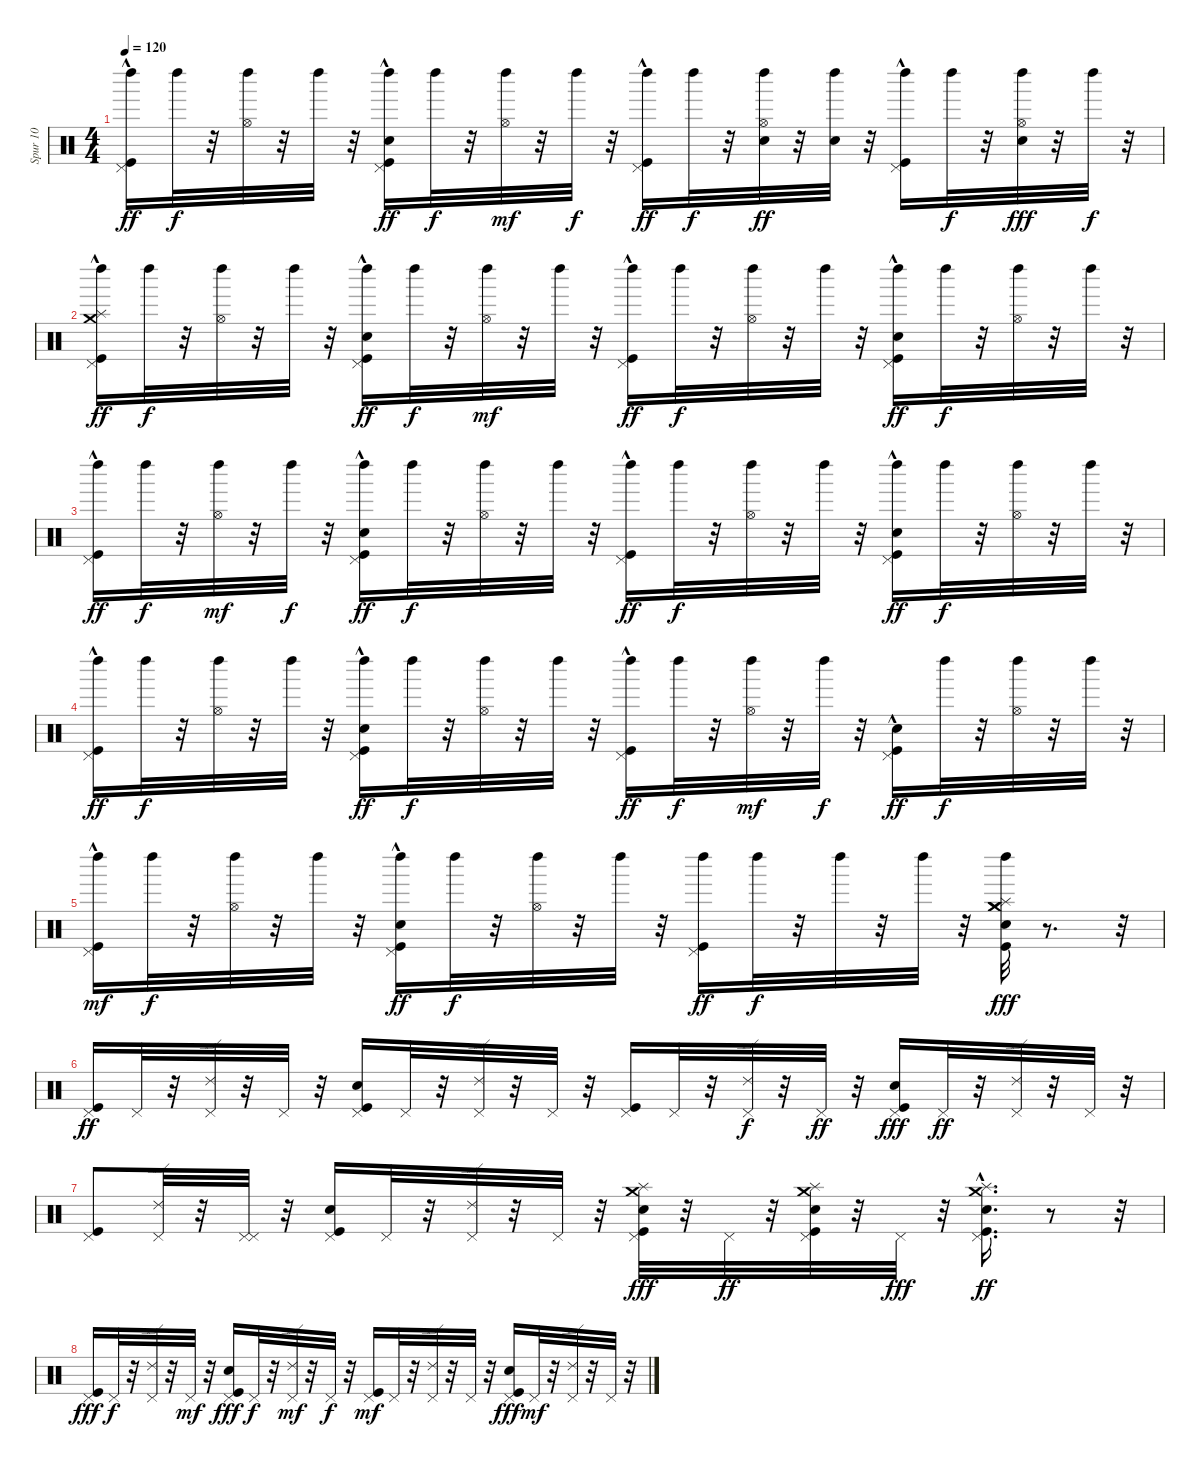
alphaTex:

\track ("Spur 10" "Spur 10") {instrument percussion}
\staff {score}
\articulation defaults
\ts (4 4)
\tempo 120
\clef neutral
\ks c
("Kick (hit)" "Pedal Hi-Hat (hit)"{hac} "Left Maraca (hit)").16{dy ff} "Left Maraca (hit)".32{dy f} r.32 ("Hi-Hat (open)" "Left Maraca (hit)").32 r.32 "Left Maraca (hit)".32 r.32 ("Snare (hit) 2"{hac} "Kick (hit)" "Pedal Hi-Hat (hit)"{hac} "Left Maraca (hit)").16{dy ff} "Left Maraca (hit)".32{dy f} r.32 ("Hi-Hat (open)" "Left Maraca (hit)").32{dy mf} r.32 "Left Maraca (hit)".32{dy f} r.32 ("Kick (hit)"{hac} "Pedal Hi-Hat (hit)"{hac} "Left Maraca (hit)").16{dy ff} "Left Maraca (hit)".32{dy f} r.32 ("Snare (hit) 2" "Hi-Hat (open)" "Left Maraca (hit)").32{dy ff} r.32 ("Snare (hit) 2" "Left Maraca (hit)").32 r.32 ("Kick (hit)"{hac} "Pedal Hi-Hat (hit)"{hac} "Left Maraca (hit)").16 "Left Maraca (hit)".32{dy f} r.32 ("Snare (hit) 2" "Hi-Hat (open)" "Left Maraca (hit)").32{dy fff} r.32 "Left Maraca (hit)".32{dy f} r.32 |
("Kick (hit)" "Pedal Hi-Hat (hit)"{hac} "Left Maraca (hit)" "Crash medium (hit)" "Splash (hit)").16{dy ff} "Left Maraca (hit)".32{dy f} r.32 ("Hi-Hat (open)" "Left Maraca (hit)").32 r.32 "Left Maraca (hit)".32 r.32 ("Kick (hit)"{hac} "Snare (hit) 2" "Pedal Hi-Hat (hit)"{hac} "Left Maraca (hit)").16{dy ff} "Left Maraca (hit)".32{dy f} r.32 ("Hi-Hat (open)" "Left Maraca (hit)").32{dy mf} r.32 "Left Maraca (hit)".32 r.32 ("Kick (hit)"{hac} "Pedal Hi-Hat (hit)" "Left Maraca (hit)").16{dy ff} "Left Maraca (hit)".32{dy f} r.32 ("Hi-Hat (open)" "Left Maraca (hit)").32 r.32 "Left Maraca (hit)".32 r.32 ("Kick (hit)"{hac} "Snare (hit) 2"{hac} "Pedal Hi-Hat (hit)"{hac} "Left Maraca (hit)").16{dy ff} "Left Maraca (hit)".32{dy f} r.32 ("Hi-Hat (open)" "Left Maraca (hit)").32 r.32 "Left Maraca (hit)".32 r.32 |
("Kick (hit)"{hac} "Pedal Hi-Hat (hit)" "Left Maraca (hit)").16{dy ff} "Left Maraca (hit)".32{dy f} r.32 ("Hi-Hat (open)" "Left Maraca (hit)").32{dy mf} r.32 "Left Maraca (hit)".32{dy f} r.32 ("Kick (hit)"{hac} "Snare (hit) 2" "Pedal Hi-Hat (hit)" "Left Maraca (hit)").16{dy ff} "Left Maraca (hit)".32{dy f} r.32 ("Hi-Hat (open)" "Left Maraca (hit)").32 r.32 "Left Maraca (hit)".32 r.32 ("Kick (hit)"{hac} "Pedal Hi-Hat (hit)" "Left Maraca (hit)").16{dy ff} "Left Maraca (hit)".32{dy f} r.32 ("Hi-Hat (open)" "Left Maraca (hit)").32 r.32 "Left Maraca (hit)".32 r.32 ("Kick (hit)"{hac} "Snare (hit) 2" "Pedal Hi-Hat (hit)" "Left Maraca (hit)").16{dy ff} "Left Maraca (hit)".32{dy f} r.32 ("Hi-Hat (open)" "Left Maraca (hit)").32 r.32 "Left Maraca (hit)".32 r.32 |
("Kick (hit)" "Pedal Hi-Hat (hit)"{hac} "Left Maraca (hit)").16{dy ff} "Left Maraca (hit)".32{dy f} r.32 ("Hi-Hat (open)" "Left Maraca (hit)").32 r.32 "Left Maraca (hit)".32 r.32 ("Snare (hit) 2" "Kick (hit)"{hac} "Pedal Hi-Hat (hit)"{hac} "Left Maraca (hit)").16{dy ff} "Left Maraca (hit)".32{dy f} r.32 ("Hi-Hat (open)" "Left Maraca (hit)").32 r.32 "Left Maraca (hit)".32 r.32 ("Kick (hit)"{hac} "Pedal Hi-Hat (hit)"{hac} "Left Maraca (hit)").16{dy ff} "Left Maraca (hit)".32{dy f} r.32 ("Hi-Hat (open)" "Left Maraca (hit)").32{dy mf} r.32 "Left Maraca (hit)".32{dy f} r.32 ("Kick (hit)"{hac} "Snare (hit) 2" "Pedal Hi-Hat (hit)"{hac}).16{dy ff} "Left Maraca (hit)".32{dy f} r.32 ("Hi-Hat (open)" "Left Maraca (hit)").32 r.32 "Left Maraca (hit)".32 r.32 |
("Kick (hit)"{hac} "Pedal Hi-Hat (hit)"{hac} "Left Maraca (hit)").16{dy mf} "Left Maraca (hit)".32{dy f} r.32 ("Hi-Hat (open)" "Left Maraca (hit)").32 r.32 "Left Maraca (hit)".32 r.32 ("Snare (hit) 2"{hac} "Kick (hit)" "Pedal Hi-Hat (hit)" "Left Maraca (hit)").16{dy ff} "Left Maraca (hit)".32{dy f} r.32 ("Hi-Hat (open)" "Left Maraca (hit)").32 r.32 "Left Maraca (hit)".32 r.32 ("Kick (hit)" "Pedal Hi-Hat (hit)" "Left Maraca (hit)").16{dy ff} "Left Maraca (hit)".32{dy f} r.32 "Left Maraca (hit)".32 r.32 "Left Maraca (hit)".32 r.32 ("Kick (hit)" "Snare (hit) 2" "Crash medium (hit)" "Splash (hit)" "Left Maraca (hit)" "Crash medium (hit)").32{dy fff} r.8{d} r.32 |
("Kick (hit)" "Pedal Hi-Hat (hit)").16{dy ff} "Pedal Hi-Hat (hit)".32 r.32 ("Ride (edge) 2" "Pedal Hi-Hat (hit)").32 r.32 "Pedal Hi-Hat (hit)".32 r.32 ("Snare (hit) 2" "Kick (hit)" "Pedal Hi-Hat (hit)").16 "Pedal Hi-Hat (hit)".32 r.32 ("Ride (edge) 2" "Pedal Hi-Hat (hit)").32 r.32 "Pedal Hi-Hat (hit)".32 r.32 ("Kick (hit)" "Pedal Hi-Hat (hit)").16 "Pedal Hi-Hat (hit)".32 r.32 ("Ride (edge) 2" "Pedal Hi-Hat (hit)").32{dy f} r.32 "Pedal Hi-Hat (hit)".32{dy ff} r.32 ("Kick (hit)" "Snare (hit) 2" "Pedal Hi-Hat (hit)").16{dy fff} "Pedal Hi-Hat (hit)".32{dy ff} r.32 ("Ride (edge) 2" "Pedal Hi-Hat (hit)").32 r.32 "Pedal Hi-Hat (hit)".32 r.32 |
("Kick (hit)" "Pedal Hi-Hat (hit)").8 ("Ride (edge) 2" "Pedal Hi-Hat (hit)").32 r.32 ("Pedal Hi-Hat (hit)" "Pedal Hi-Hat (hit)").32 r.32 ("Snare (hit) 2" "Kick (hit)" "Pedal Hi-Hat (hit)").16 "Pedal Hi-Hat (hit)".32 r.32 ("Ride (edge) 2" "Pedal Hi-Hat (hit)").32 r.32 "Pedal Hi-Hat (hit)".32 r.32 ("Kick (hit)" "Snare (hit) 2" "Crash medium (hit)" "Pedal Hi-Hat (hit)" "Splash (hit)").32{dy fff} r.32 "Pedal Hi-Hat (hit)".32{dy ff} r.32 ("Kick (hit)" "Snare (hit) 2" "Crash medium (hit)" "Pedal Hi-Hat (hit)" "Splash (hit)").32 r.32 "Pedal Hi-Hat (hit)".32{dy fff} r.32 ("Snare (hit) 2"{hac} "Kick (hit)"{hac} "Crash medium (hit)" "Pedal Hi-Hat (hit)" "Splash (hit)").16{d dy ff} r.8 r.32 |
("Kick (hit)" "Pedal Hi-Hat (hit)").16{dy fff} "Pedal Hi-Hat (hit)".32{dy f} r.32 ("Ride (edge) 2" "Pedal Hi-Hat (hit)").32 r.32 "Pedal Hi-Hat (hit)".32{dy mf} r.32 ("Snare (hit) 2" "Kick (hit)" "Pedal Hi-Hat (hit)").16{dy fff} "Pedal Hi-Hat (hit)".32{dy f} r.32 ("Ride (edge) 2" "Pedal Hi-Hat (hit)").32{dy mf} r.32 "Pedal Hi-Hat (hit)".32{dy f} r.32 ("Kick (hit)" "Pedal Hi-Hat (hit)").16{dy mf} "Pedal Hi-Hat (hit)".32 r.32 ("Ride (edge) 2" "Pedal Hi-Hat (hit)").32 r.32 "Pedal Hi-Hat (hit)".32 r.32 ("Snare (hit) 2" "Kick (hit)" "Pedal Hi-Hat (hit)").16{dy fff} "Pedal Hi-Hat (hit)".32{dy mf} r.32 ("Ride (edge) 2" "Pedal Hi-Hat (hit)").32 r.32 "Pedal Hi-Hat (hit)".32 r.32
